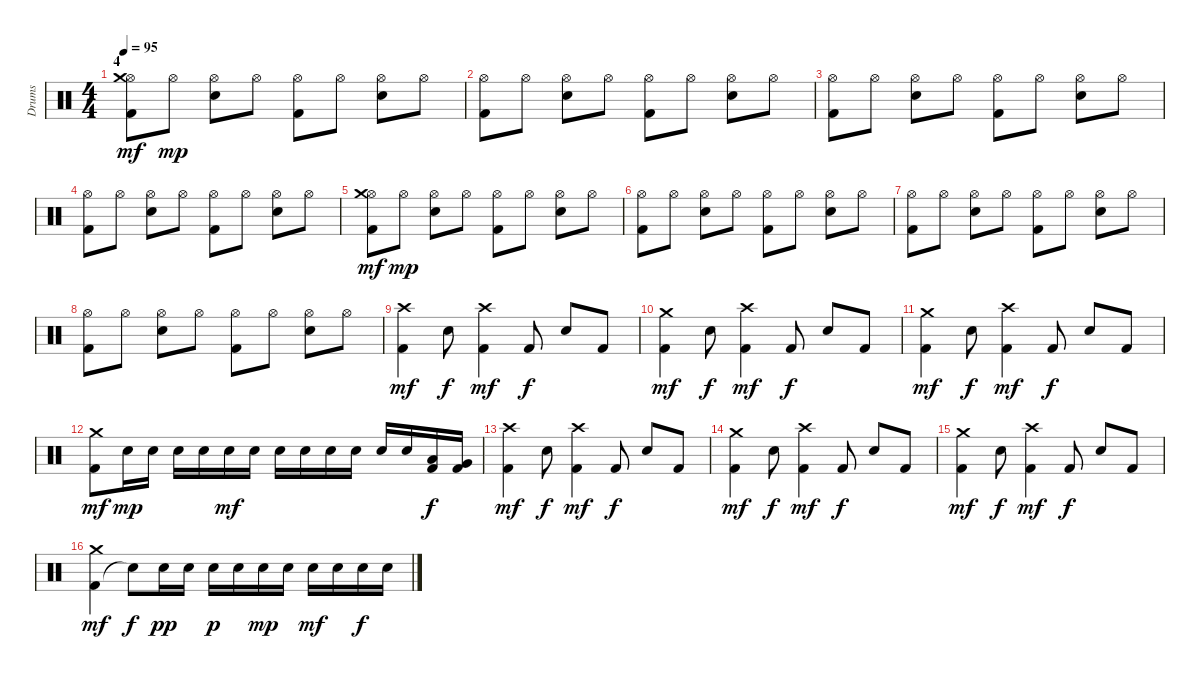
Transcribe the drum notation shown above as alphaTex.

\track ("Drums" "Drums") {instrument percussion}
\staff {score}
\articulation defaults
\ts (4 4)
\section ("" "4")
\tempo 95
\clef neutral
\ks c
("Kick (hit) 2" "Hi-Hat (open)" "Crash medium (hit)").8{dy mf} "Hi-Hat (open)".8{dy mp} ("Electric Snare (hit)" "Hi-Hat (open)").8 "Hi-Hat (open)".8 ("Kick (hit) 2" "Hi-Hat (open)").8 "Hi-Hat (open)".8 ("Electric Snare (hit)" "Hi-Hat (open)").8 "Hi-Hat (open)".8 |
("Kick (hit) 2" "Hi-Hat (open)").8 "Hi-Hat (open)".8 ("Electric Snare (hit)" "Hi-Hat (open)").8 "Hi-Hat (open)".8 ("Kick (hit) 2" "Hi-Hat (open)").8 "Hi-Hat (open)".8 ("Electric Snare (hit)" "Hi-Hat (open)").8 "Hi-Hat (open)".8 |
("Kick (hit) 2" "Hi-Hat (open)").8 "Hi-Hat (open)".8 ("Electric Snare (hit)" "Hi-Hat (open)").8 "Hi-Hat (open)".8 ("Kick (hit) 2" "Hi-Hat (open)").8 "Hi-Hat (open)".8 ("Electric Snare (hit)" "Hi-Hat (open)").8 "Hi-Hat (open)".8 |
("Kick (hit) 2" "Hi-Hat (open)").8 "Hi-Hat (open)".8 ("Electric Snare (hit)" "Hi-Hat (open)").8 "Hi-Hat (open)".8 ("Kick (hit) 2" "Hi-Hat (open)").8 "Hi-Hat (open)".8 ("Electric Snare (hit)" "Hi-Hat (open)").8 "Hi-Hat (open)".8 |
("Kick (hit) 2" "Hi-Hat (open)" "Crash medium (hit)").8{dy mf} "Hi-Hat (open)".8{dy mp} ("Electric Snare (hit)" "Hi-Hat (open)").8 "Hi-Hat (open)".8 ("Kick (hit) 2" "Hi-Hat (open)").8 "Hi-Hat (open)".8 ("Electric Snare (hit)" "Hi-Hat (open)").8 "Hi-Hat (open)".8 |
("Kick (hit) 2" "Hi-Hat (open)").8 "Hi-Hat (open)".8 ("Electric Snare (hit)" "Hi-Hat (open)").8 "Hi-Hat (open)".8 ("Kick (hit) 2" "Hi-Hat (open)").8 "Hi-Hat (open)".8 ("Electric Snare (hit)" "Hi-Hat (open)").8 "Hi-Hat (open)".8 |
("Kick (hit) 2" "Hi-Hat (open)").8 "Hi-Hat (open)".8 ("Electric Snare (hit)" "Hi-Hat (open)").8 "Hi-Hat (open)".8 ("Kick (hit) 2" "Hi-Hat (open)").8 "Hi-Hat (open)".8 ("Electric Snare (hit)" "Hi-Hat (open)").8 "Hi-Hat (open)".8 |
("Kick (hit) 2" "Hi-Hat (open)").8 "Hi-Hat (open)".8 ("Electric Snare (hit)" "Hi-Hat (open)").8 "Hi-Hat (open)".8 ("Kick (hit) 2" "Hi-Hat (open)").8 "Hi-Hat (open)".8 ("Electric Snare (hit)" "Hi-Hat (open)").8 "Hi-Hat (open)".8 |
("Kick (hit) 2" "Crash high (hit)").4{dy mf} "Electric Snare (hit)".8{dy f} ("Kick (hit) 2" "Crash high (hit)").4{dy mf} "Kick (hit) 2".8{dy f} "Electric Snare (hit)".8 "Kick (hit) 2".8 |
("Kick (hit) 2" "Crash medium (hit)").4{dy mf} "Electric Snare (hit)".8{dy f} ("Kick (hit) 2" "Crash high (hit)").4{dy mf} "Kick (hit) 2".8{dy f} "Electric Snare (hit)".8 "Kick (hit) 2".8 |
("Kick (hit) 2" "Crash medium (hit)").4{dy mf} "Electric Snare (hit)".8{dy f} ("Kick (hit) 2" "Crash high (hit)").4{dy mf} "Kick (hit) 2".8{dy f} "Electric Snare (hit)".8 "Kick (hit) 2".8 |
("Kick (hit) 2" "Crash medium (hit)").8{dy mf} "Electric Snare (hit)".16{dy mp} "Electric Snare (hit)".16 "Electric Snare (hit)".16 "Electric Snare (hit)".16 "Electric Snare (hit)".16{dy mf} "Electric Snare (hit)".16 "Electric Snare (hit)".16 "Electric Snare (hit)".16 "Electric Snare (hit)".16 "Electric Snare (hit)".16 "Electric Snare (hit)".16 "Electric Snare (hit)".16 ("Kick (hit) 2" "Low Tom (hit)").16{dy f} ("Kick (hit) 2" "Very Low Tom (hit)").16 |
("Kick (hit) 2" "Crash high (hit)").4{dy mf} "Electric Snare (hit)".8{dy f} ("Kick (hit) 2" "Crash high (hit)").4{dy mf} "Kick (hit) 2".8{dy f} "Electric Snare (hit)".8 "Kick (hit) 2".8 |
("Kick (hit) 2" "Crash medium (hit)").4{dy mf} "Electric Snare (hit)".8{dy f} ("Kick (hit) 2" "Crash high (hit)").4{dy mf} "Kick (hit) 2".8{dy f} "Electric Snare (hit)".8 "Kick (hit) 2".8 |
("Kick (hit) 2" "Crash medium (hit)").4{dy mf} "Electric Snare (hit)".8{dy f} ("Kick (hit) 2" "Crash high (hit)").4{dy mf} "Kick (hit) 2".8{dy f} "Electric Snare (hit)".8 "Kick (hit) 2".8 |
("Kick (hit) 2" "Crash medium (hit)").4{dy mf} "Snare (hit)"{t}.8{dy f} "Electric Snare (hit)".16{dy pp} "Electric Snare (hit)".16 "Electric Snare (hit)".16{dy p} "Electric Snare (hit)".16 "Electric Snare (hit)".16{dy mp} "Electric Snare (hit)".16 "Electric Snare (hit)".16{dy mf} "Electric Snare (hit)".16 "Electric Snare (hit)".16{dy f} "Electric Snare (hit)".16
